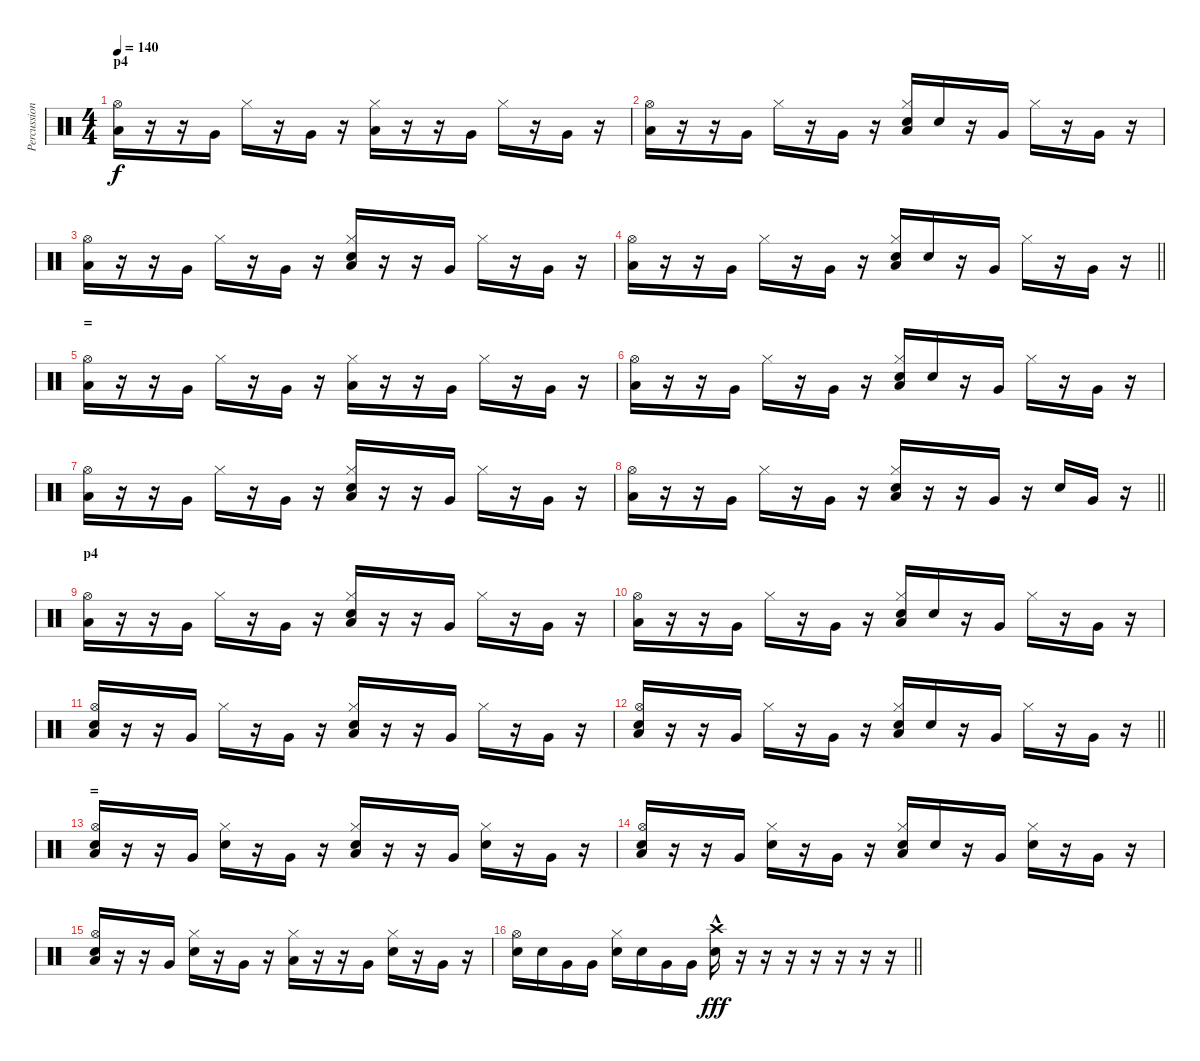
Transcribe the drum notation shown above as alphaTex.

\track ("Percussion" "Percussion") {instrument percussion}
\staff {score}
\articulation defaults
\ts (4 4)
\section ("" "p4")
\tempo 140
\clef neutral
\ks c
("Low Floor Tom (hit)" "Hi-Hat (open)").16{dy f} r.16 r.16 "Very Low Tom (hit)".16 "Hi-Hat (closed)".16 r.16 "Very Low Tom (hit)".16 r.16 ("Low Floor Tom (hit)" "Hi-Hat (closed)").16 r.16 r.16 "Very Low Tom (hit)".16 "Hi-Hat (closed)".16 r.16 "Very Low Tom (hit)".16 r.16 |
("Low Floor Tom (hit)" "Hi-Hat (open)").16 r.16 r.16 "Very Low Tom (hit)".16 "Hi-Hat (closed)".16 r.16 "Very Low Tom (hit)".16 r.16 ("Low Floor Tom (hit)" "Electric Snare (hit)" "Hi-Hat (closed)").16 "Electric Snare (hit)".16 r.16 "Very Low Tom (hit)".16 "Hi-Hat (closed)".16 r.16 "Very Low Tom (hit)".16 r.16 |
("Low Floor Tom (hit)" "Hi-Hat (open)").16 r.16 r.16 "Very Low Tom (hit)".16 "Hi-Hat (closed)".16 r.16 "Very Low Tom (hit)".16 r.16 ("Low Floor Tom (hit)" "Electric Snare (hit)" "Hi-Hat (closed)").16 r.16 r.16 "Very Low Tom (hit)".16 "Hi-Hat (closed)".16 r.16 "Very Low Tom (hit)".16 r.16 |
\barLineRight lightlight
("Low Floor Tom (hit)" "Hi-Hat (open)").16 r.16 r.16 "Very Low Tom (hit)".16 "Hi-Hat (closed)".16 r.16 "Very Low Tom (hit)".16 r.16 ("Low Floor Tom (hit)" "Electric Snare (hit)" "Hi-Hat (closed)").16 "Electric Snare (hit)".16 r.16 "Very Low Tom (hit)".16 "Hi-Hat (closed)".16 r.16 "Very Low Tom (hit)".16 r.16 |
\section ("" "=")
("Low Floor Tom (hit)" "Hi-Hat (open)").16 r.16 r.16 "Very Low Tom (hit)".16 "Hi-Hat (closed)".16 r.16 "Very Low Tom (hit)".16 r.16 ("Low Floor Tom (hit)" "Hi-Hat (closed)").16 r.16 r.16 "Very Low Tom (hit)".16 "Hi-Hat (closed)".16 r.16 "Very Low Tom (hit)".16 r.16 |
("Low Floor Tom (hit)" "Hi-Hat (open)").16 r.16 r.16 "Very Low Tom (hit)".16 "Hi-Hat (closed)".16 r.16 "Very Low Tom (hit)".16 r.16 ("Low Floor Tom (hit)" "Electric Snare (hit)" "Hi-Hat (closed)").16 "Electric Snare (hit)".16 r.16 "Very Low Tom (hit)".16 "Hi-Hat (closed)".16 r.16 "Very Low Tom (hit)".16 r.16 |
("Low Floor Tom (hit)" "Hi-Hat (open)").16 r.16 r.16 "Very Low Tom (hit)".16 "Hi-Hat (closed)".16 r.16 "Very Low Tom (hit)".16 r.16 ("Low Floor Tom (hit)" "Electric Snare (hit)" "Hi-Hat (closed)").16 r.16 r.16 "Very Low Tom (hit)".16 "Hi-Hat (closed)".16 r.16 "Very Low Tom (hit)".16 r.16 |
\barLineRight lightlight
("Low Floor Tom (hit)" "Hi-Hat (open)").16 r.16 r.16 "Very Low Tom (hit)".16 "Hi-Hat (closed)".16 r.16 "Very Low Tom (hit)".16 r.16 ("Low Floor Tom (hit)" "Electric Snare (hit)" "Hi-Hat (closed)").16 r.16 r.16 "Very Low Tom (hit)".16 r.16 "Electric Snare (hit)".16 "Very Low Tom (hit)".16 r.16 |
\section ("" "p4")
("Low Floor Tom (hit)" "Hi-Hat (open)").16 r.16 r.16 "Very Low Tom (hit)".16 "Hi-Hat (closed)".16 r.16 "Very Low Tom (hit)".16 r.16 ("Low Floor Tom (hit)" "Electric Snare (hit)" "Hi-Hat (closed)").16 r.16 r.16 "Very Low Tom (hit)".16 "Hi-Hat (closed)".16 r.16 "Very Low Tom (hit)".16 r.16 |
("Low Floor Tom (hit)" "Hi-Hat (open)").16 r.16 r.16 "Very Low Tom (hit)".16 "Hi-Hat (closed)".16 r.16 "Very Low Tom (hit)".16 r.16 ("Low Floor Tom (hit)" "Electric Snare (hit)" "Hi-Hat (closed)").16 "Electric Snare (hit)".16 r.16 "Very Low Tom (hit)".16 "Hi-Hat (closed)".16 r.16 "Very Low Tom (hit)".16 r.16 |
("Low Floor Tom (hit)" "Electric Snare (hit)" "Hi-Hat (open)").16 r.16 r.16 "Very Low Tom (hit)".16 "Hi-Hat (closed)".16 r.16 "Very Low Tom (hit)".16 r.16 ("Low Floor Tom (hit)" "Electric Snare (hit)" "Hi-Hat (closed)").16 r.16 r.16 "Very Low Tom (hit)".16 "Hi-Hat (closed)".16 r.16 "Very Low Tom (hit)".16 r.16 |
\barLineRight lightlight
("Low Floor Tom (hit)" "Electric Snare (hit)" "Hi-Hat (open)").16 r.16 r.16 "Very Low Tom (hit)".16 "Hi-Hat (closed)".16 r.16 "Very Low Tom (hit)".16 r.16 ("Low Floor Tom (hit)" "Electric Snare (hit)" "Hi-Hat (closed)").16 "Electric Snare (hit)".16 r.16 "Very Low Tom (hit)".16 "Hi-Hat (closed)".16 r.16 "Very Low Tom (hit)".16 r.16 |
\section ("" "=")
("Low Floor Tom (hit)" "Electric Snare (hit)" "Hi-Hat (open)").16 r.16 r.16 "Very Low Tom (hit)".16 ("Electric Snare (hit)" "Hi-Hat (closed)").16 r.16 "Very Low Tom (hit)".16 r.16 ("Low Floor Tom (hit)" "Electric Snare (hit)" "Hi-Hat (closed)").16 r.16 r.16 "Very Low Tom (hit)".16 ("Electric Snare (hit)" "Hi-Hat (closed)").16 r.16 "Very Low Tom (hit)".16 r.16 |
("Low Floor Tom (hit)" "Electric Snare (hit)" "Hi-Hat (open)").16 r.16 r.16 "Very Low Tom (hit)".16 ("Electric Snare (hit)" "Hi-Hat (closed)").16 r.16 "Very Low Tom (hit)".16 r.16 ("Low Floor Tom (hit)" "Electric Snare (hit)" "Hi-Hat (closed)").16 "Electric Snare (hit)".16 r.16 "Very Low Tom (hit)".16 ("Electric Snare (hit)" "Hi-Hat (closed)").16 r.16 "Very Low Tom (hit)".16 r.16 |
("Low Floor Tom (hit)" "Electric Snare (hit)" "Hi-Hat (open)").16 r.16 r.16 "Very Low Tom (hit)".16 ("Electric Snare (hit)" "Hi-Hat (closed)").16 r.16 "Very Low Tom (hit)".16 r.16 ("Low Floor Tom (hit)" "Hi-Hat (closed)").16 r.16 r.16 "Very Low Tom (hit)".16 ("Electric Snare (hit)" "Hi-Hat (closed)").16 r.16 "Very Low Tom (hit)".16 r.16 |
\barLineRight lightlight
("Electric Snare (hit)" "Hi-Hat (open)").16 "Electric Snare (hit)".16 "Very Low Tom (hit)".16 "Very Low Tom (hit)".16 ("Electric Snare (hit)" "Hi-Hat (closed)").16 "Electric Snare (hit)".16 "Very Low Tom (hit)".16 "Very Low Tom (hit)".16 ("Electric Snare (hit)"{hac} "Crash high (hit)"{hac}).16{dy fff} r.16 r.16 r.16 r.16 r.16 r.16 r.16
